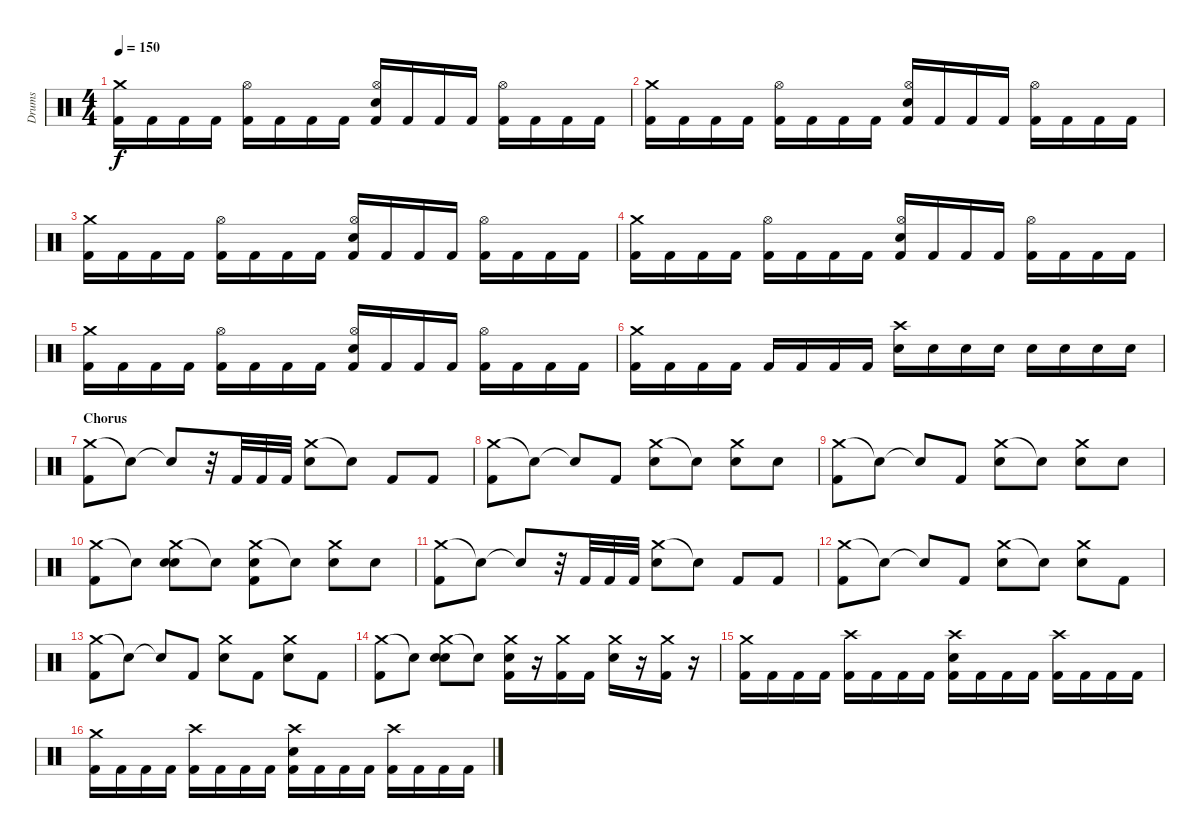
\track ("Drums" "Drums") {instrument percussion}
\staff {score}
\articulation defaults
\ts (4 4)
\tempo 150
\clef neutral
\ks c
("Crash medium (hit)" "Kick (hit) 2").16{dy f} "Kick (hit) 2".16 "Kick (hit) 2".16 "Kick (hit) 2".16 ("Hi-Hat (open)" "Kick (hit) 2").16 "Kick (hit) 2".16 "Kick (hit) 2".16 "Kick (hit) 2".16 ("Hi-Hat (open)" "Electric Snare (hit)" "Kick (hit) 2").16 "Kick (hit) 2".16 "Kick (hit) 2".16 "Kick (hit) 2".16 ("Hi-Hat (open)" "Kick (hit) 2").16 "Kick (hit) 2".16 "Kick (hit) 2".16 "Kick (hit) 2".16 |
("Crash medium (hit)" "Kick (hit) 2").16 "Kick (hit) 2".16 "Kick (hit) 2".16 "Kick (hit) 2".16 ("Hi-Hat (open)" "Kick (hit) 2").16 "Kick (hit) 2".16 "Kick (hit) 2".16 "Kick (hit) 2".16 ("Hi-Hat (open)" "Electric Snare (hit)" "Kick (hit) 2").16 "Kick (hit) 2".16 "Kick (hit) 2".16 "Kick (hit) 2".16 ("Hi-Hat (open)" "Kick (hit) 2").16 "Kick (hit) 2".16 "Kick (hit) 2".16 "Kick (hit) 2".16 |
("Crash medium (hit)" "Kick (hit) 2").16 "Kick (hit) 2".16 "Kick (hit) 2".16 "Kick (hit) 2".16 ("Hi-Hat (open)" "Kick (hit) 2").16 "Kick (hit) 2".16 "Kick (hit) 2".16 "Kick (hit) 2".16 ("Hi-Hat (open)" "Electric Snare (hit)" "Kick (hit) 2").16 "Kick (hit) 2".16 "Kick (hit) 2".16 "Kick (hit) 2".16 ("Hi-Hat (open)" "Kick (hit) 2").16 "Kick (hit) 2".16 "Kick (hit) 2".16 "Kick (hit) 2".16 |
("Crash medium (hit)" "Kick (hit) 2").16 "Kick (hit) 2".16 "Kick (hit) 2".16 "Kick (hit) 2".16 ("Hi-Hat (open)" "Kick (hit) 2").16 "Kick (hit) 2".16 "Kick (hit) 2".16 "Kick (hit) 2".16 ("Hi-Hat (open)" "Electric Snare (hit)" "Kick (hit) 2").16 "Kick (hit) 2".16 "Kick (hit) 2".16 "Kick (hit) 2".16 ("Hi-Hat (open)" "Kick (hit) 2").16 "Kick (hit) 2".16 "Kick (hit) 2".16 "Kick (hit) 2".16 |
("Crash medium (hit)" "Kick (hit) 2").16 "Kick (hit) 2".16 "Kick (hit) 2".16 "Kick (hit) 2".16 ("Hi-Hat (open)" "Kick (hit) 2").16 "Kick (hit) 2".16 "Kick (hit) 2".16 "Kick (hit) 2".16 ("Hi-Hat (open)" "Electric Snare (hit)" "Kick (hit) 2").16 "Kick (hit) 2".16 "Kick (hit) 2".16 "Kick (hit) 2".16 ("Hi-Hat (open)" "Kick (hit) 2").16 "Kick (hit) 2".16 "Kick (hit) 2".16 "Kick (hit) 2".16 |
("Crash medium (hit)" "Kick (hit) 2").16 "Kick (hit) 2".16 "Kick (hit) 2".16 "Kick (hit) 2".16 "Kick (hit) 2".16 "Kick (hit) 2".16 "Kick (hit) 2".16 "Kick (hit) 2".16 ("Crash high (hit)" "Electric Snare (hit)").16 "Electric Snare (hit)".16 "Electric Snare (hit)".16 "Electric Snare (hit)".16 "Electric Snare (hit)".16 "Electric Snare (hit)".16 "Electric Snare (hit)".16 "Electric Snare (hit)".16 |
\section ("" "Chorus")
("Crash medium (hit)" "Kick (hit) 2").8 "Snare (hit)"{t}.8 "Snare (hit)"{t}.8 r.32 "Kick (hit) 2".32 "Kick (hit) 2".32 "Kick (hit) 2".32 ("Crash medium (hit)" "Electric Snare (hit)").8 "Snare (hit)"{t}.8 "Kick (hit) 2".8 "Kick (hit) 2".8 |
("Crash medium (hit)" "Kick (hit) 2").8 "Snare (hit)"{t}.8 "Snare (hit)"{t}.8 "Kick (hit) 2".8 ("Crash medium (hit)" "Electric Snare (hit)").8 "Snare (hit)"{t}.8 ("Crash medium (hit)" "Electric Snare (hit)").8 "Electric Snare (hit)".8 |
("Crash medium (hit)" "Kick (hit) 2").8 "Snare (hit)"{t}.8 "Snare (hit)"{t}.8 "Kick (hit) 2".8 ("Crash medium (hit)" "Electric Snare (hit)").8 "Snare (hit)"{t}.8 ("Crash medium (hit)" "Electric Snare (hit)").8 "Electric Snare (hit)".8 |
("Crash medium (hit)" "Kick (hit) 2").8 "Snare (hit)"{t}.8 ("Crash medium (hit)" "Electric Snare (hit)" "Snare (hit)").8 "Snare (hit)"{t}.8 ("Crash medium (hit)" "Electric Snare (hit)" "Kick (hit) 2").8 "Snare (hit)"{t}.8 ("Crash medium (hit)" "Electric Snare (hit)").8 "Electric Snare (hit)".8 |
("Crash medium (hit)" "Kick (hit) 2").8 "Snare (hit)"{t}.8 "Snare (hit)"{t}.8 r.32 "Kick (hit) 2".32 "Kick (hit) 2".32 "Kick (hit) 2".32 ("Crash medium (hit)" "Electric Snare (hit)").8 "Snare (hit)"{t}.8 "Kick (hit) 2".8 "Kick (hit) 2".8 |
("Crash medium (hit)" "Kick (hit) 2").8 "Snare (hit)"{t}.8 "Snare (hit)"{t}.8 "Kick (hit) 2".8 ("Crash medium (hit)" "Electric Snare (hit)").8 "Snare (hit)"{t}.8 ("Crash medium (hit)" "Electric Snare (hit)").8 "Kick (hit) 2".8 |
("Crash medium (hit)" "Kick (hit) 2").8 "Snare (hit)"{t}.8 "Snare (hit)"{t}.8 "Kick (hit) 2".8 ("Crash medium (hit)" "Electric Snare (hit)").8 "Kick (hit) 2".8 ("Crash medium (hit)" "Electric Snare (hit)").8 "Kick (hit) 2".8 |
("Crash medium (hit)" "Kick (hit) 2").8 "Snare (hit)"{t}.8 ("Crash medium (hit)" "Electric Snare (hit)" "Snare (hit)").8 "Snare (hit)"{t}.8 ("Crash medium (hit)" "Electric Snare (hit)" "Kick (hit) 2").16 r.16 ("Crash medium (hit)" "Kick (hit) 2").16 "Kick (hit) 2".16 ("Crash medium (hit)" "Electric Snare (hit)").16 r.16 ("Crash medium (hit)" "Kick (hit) 2").16 r.16 |
("Crash medium (hit)" "Kick (hit) 2").16 "Kick (hit) 2".16 "Kick (hit) 2".16 "Kick (hit) 2".16 ("Crash high (hit)" "Kick (hit) 2").16 "Kick (hit) 2".16 "Kick (hit) 2".16 "Kick (hit) 2".16 ("Crash high (hit)" "Electric Snare (hit)" "Kick (hit) 2").16 "Kick (hit) 2".16 "Kick (hit) 2".16 "Kick (hit) 2".16 ("Crash high (hit)" "Kick (hit) 2").16 "Kick (hit) 2".16 "Kick (hit) 2".16 "Kick (hit) 2".16 |
("Crash medium (hit)" "Kick (hit) 2").16 "Kick (hit) 2".16 "Kick (hit) 2".16 "Kick (hit) 2".16 ("Crash high (hit)" "Kick (hit) 2").16 "Kick (hit) 2".16 "Kick (hit) 2".16 "Kick (hit) 2".16 ("Crash high (hit)" "Electric Snare (hit)" "Kick (hit) 2").16 "Kick (hit) 2".16 "Kick (hit) 2".16 "Kick (hit) 2".16 ("Crash high (hit)" "Kick (hit) 2").16 "Kick (hit) 2".16 "Kick (hit) 2".16 "Kick (hit) 2".16
